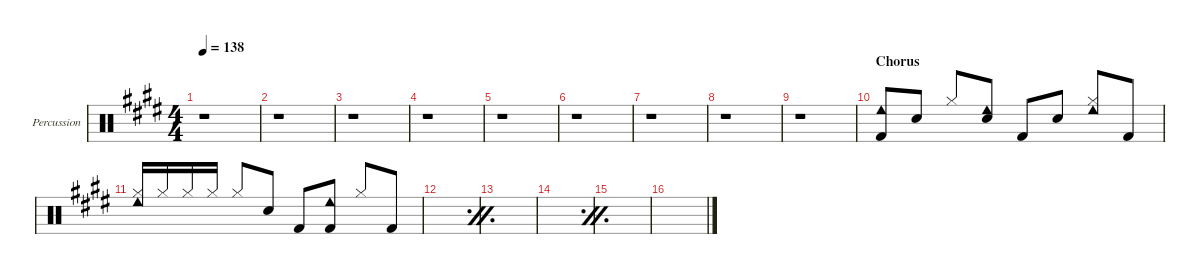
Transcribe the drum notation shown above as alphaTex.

\defaultSystemsLayout 4
\hideDynamics
\bracketExtendMode nobrackets
\firstSystemTrackNameOrientation horizontal
\track ("Percussion" "Percussion") {defaultSystemsLayout 4 mute instrument percussion}
\staff {score}
\articulation defaults
\ts (4 4)
\tempo 138
\clef neutral
\scale
0.245002
\ks c#minor
r.1{dy f beam Down} |
\scale
0.245002 r.1{beam Down} |
\scale
0.242787 r.1{beam Down} |
\scale
0.267209 r.1{beam Down} |
\scale
0.245002 r.1{beam Down} |
\scale
0.245002 r.1{beam Down} |
\scale
0.242787 r.1{beam Down} |
\scale
0.511079 r.1{beam Down} |
\scale
0.488921 r.1{beam Down} |
\section ("" "Chorus")
\scale
0.266619 ("Kick (hit) 2"{acc forcenatural} "Cowbell low (hit)"{acc forcenatural}).8{beam Up} "Snare (hit) 2"{acc forcenatural}.8{beam Up} "Hi-Hat (closed)"{acc forcenatural}.8{beam Up} ("Snare (hit) 2"{acc forcenatural} "Cowbell low (hit)"{acc forcenatural}).8{beam Up} "Kick (hit) 2"{acc forcenatural}.8{beam Up} "Snare (hit) 2"{acc forcenatural}.8{beam Up} ("Hi-Hat (closed)"{acc forcenatural} "Cowbell low (hit)"{acc forcenatural}).8{beam Up} "Kick (hit) 2"{acc forcenatural}.8{beam Up} |
\scale
0.244461 ("Hi-Hat (closed)"{acc forcenatural} "Cowbell low (hit)"{acc forcenatural}).16{beam Up} "Hi-Hat (closed)"{acc forcenatural}.16{beam Up} "Hi-Hat (closed)"{acc forcenatural}.16{beam Up} "Hi-Hat (closed)"{acc forcenatural}.16{beam Up beam split} "Hi-Hat (closed)"{acc forcenatural}.8{beam Up} "Snare (hit) 2"{acc forcenatural}.8{beam Up} "Kick (hit) 2"{acc forcenatural}.8{beam Up} ("Kick (hit) 2"{acc forcenatural} "Cowbell low (hit)"{acc forcenatural}).8{beam Up} "Hi-Hat (closed)"{acc forcenatural}.8{beam Up} "Kick (hit) 2"{acc forcenatural}.8{beam Up} |
\simile firstofdouble
\scale
0.244461 |
\simile secondofdouble
\scale
0.24446 |
\simile firstofdouble
\scale
0.266618 |
\simile secondofdouble
\scale
0.244461 |
\simile firstofdouble
\scale
0.244461
